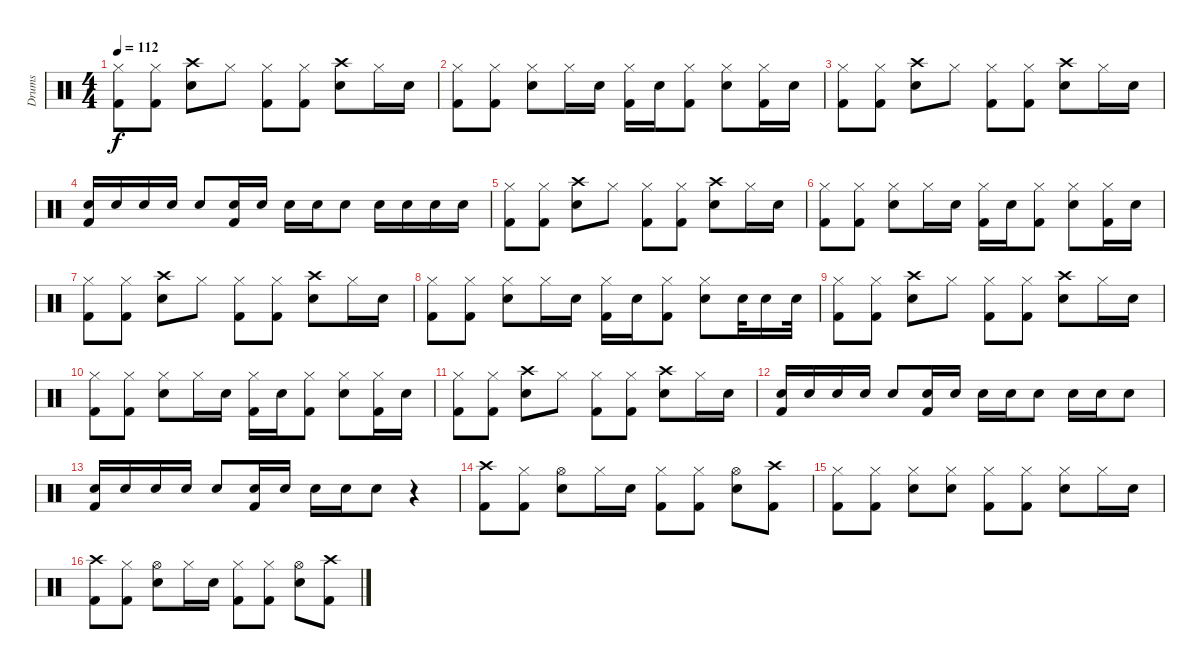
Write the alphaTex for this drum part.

\track ("Drums" "Drums") {instrument percussion}
\staff {score}
\articulation defaults
\ts (4 4)
\tempo 112
\clef neutral
\ks c
("Hi-Hat (closed)" "Kick (hit) 2").8{dy f} ("Hi-Hat (closed)" "Kick (hit) 2").8 ("Crash high (hit)" "Snare (hit) 2").8 "Hi-Hat (closed)".8 ("Hi-Hat (closed)" "Kick (hit) 2").8 ("Hi-Hat (closed)" "Kick (hit) 2").8 ("Crash high (hit)" "Snare (hit) 2").8 "Hi-Hat (closed)".16 "Snare (hit) 2".16 |
("Hi-Hat (closed)" "Kick (hit) 2").8 ("Hi-Hat (closed)" "Kick (hit) 2").8 ("Hi-Hat (closed)" "Snare (hit) 2").8 "Hi-Hat (closed)".16 "Snare (hit) 2".16 ("Hi-Hat (closed)" "Kick (hit) 2").16 "Snare (hit) 2".16 ("Hi-Hat (closed)" "Kick (hit) 2").8 ("Hi-Hat (closed)" "Snare (hit) 2").8 ("Hi-Hat (closed)" "Kick (hit) 2").16 "Snare (hit) 2".16 |
("Hi-Hat (closed)" "Kick (hit) 2").8 ("Hi-Hat (closed)" "Kick (hit) 2").8 ("Crash high (hit)" "Snare (hit) 2").8 "Hi-Hat (closed)".8 ("Hi-Hat (closed)" "Kick (hit) 2").8 ("Hi-Hat (closed)" "Kick (hit) 2").8 ("Crash high (hit)" "Snare (hit) 2").8 "Hi-Hat (closed)".16 "Snare (hit) 2".16 |
("Snare (hit) 2" "Kick (hit) 2").16 "Snare (hit) 2".16 "Snare (hit) 2".16 "Snare (hit) 2".16 "Snare (hit) 2".8 ("Snare (hit) 2" "Kick (hit) 2").16 "Snare (hit) 2".16 "Snare (hit) 2".16 "Snare (hit) 2".16 "Snare (hit) 2".8 "Snare (hit) 2".16 "Snare (hit) 2".16 "Snare (hit) 2".16 "Snare (hit) 2".16 |
("Hi-Hat (closed)" "Kick (hit) 2").8 ("Hi-Hat (closed)" "Kick (hit) 2").8 ("Crash high (hit)" "Snare (hit) 2").8 "Hi-Hat (closed)".8 ("Hi-Hat (closed)" "Kick (hit) 2").8 ("Hi-Hat (closed)" "Kick (hit) 2").8 ("Crash high (hit)" "Snare (hit) 2").8 "Hi-Hat (closed)".16 "Snare (hit) 2".16 |
("Hi-Hat (closed)" "Kick (hit) 2").8 ("Hi-Hat (closed)" "Kick (hit) 2").8 ("Hi-Hat (closed)" "Snare (hit) 2").8 "Hi-Hat (closed)".16 "Snare (hit) 2".16 ("Hi-Hat (closed)" "Kick (hit) 2").16 "Snare (hit) 2".16 ("Hi-Hat (closed)" "Kick (hit) 2").8 ("Hi-Hat (closed)" "Snare (hit) 2").8 ("Hi-Hat (closed)" "Kick (hit) 2").16 "Snare (hit) 2".16 |
("Hi-Hat (closed)" "Kick (hit) 2").8 ("Hi-Hat (closed)" "Kick (hit) 2").8 ("Crash high (hit)" "Snare (hit) 2").8 "Hi-Hat (closed)".8 ("Hi-Hat (closed)" "Kick (hit) 2").8 ("Hi-Hat (closed)" "Kick (hit) 2").8 ("Crash high (hit)" "Snare (hit) 2").8 "Hi-Hat (closed)".16 "Snare (hit) 2".16 |
("Hi-Hat (closed)" "Kick (hit) 2").8 ("Hi-Hat (closed)" "Kick (hit) 2").8 ("Hi-Hat (closed)" "Snare (hit) 2").8 "Hi-Hat (closed)".16 "Snare (hit) 2".16 ("Hi-Hat (closed)" "Kick (hit) 2").16 "Snare (hit) 2".16 ("Hi-Hat (closed)" "Kick (hit) 2").8 ("Hi-Hat (closed)" "Snare (hit) 2").8 "Snare (hit) 2".32 "Snare (hit) 2".16 "Snare (hit) 2".32 |
("Hi-Hat (closed)" "Kick (hit) 2").8 ("Hi-Hat (closed)" "Kick (hit) 2").8 ("Crash high (hit)" "Snare (hit) 2").8 "Hi-Hat (closed)".8 ("Hi-Hat (closed)" "Kick (hit) 2").8 ("Hi-Hat (closed)" "Kick (hit) 2").8 ("Crash high (hit)" "Snare (hit) 2").8 "Hi-Hat (closed)".16 "Snare (hit) 2".16 |
("Hi-Hat (closed)" "Kick (hit) 2").8 ("Hi-Hat (closed)" "Kick (hit) 2").8 ("Hi-Hat (closed)" "Snare (hit) 2").8 "Hi-Hat (closed)".16 "Snare (hit) 2".16 ("Hi-Hat (closed)" "Kick (hit) 2").16 "Snare (hit) 2".16 ("Hi-Hat (closed)" "Kick (hit) 2").8 ("Hi-Hat (closed)" "Snare (hit) 2").8 ("Hi-Hat (closed)" "Kick (hit) 2").16 "Snare (hit) 2".16 |
("Hi-Hat (closed)" "Kick (hit) 2").8 ("Hi-Hat (closed)" "Kick (hit) 2").8 ("Crash high (hit)" "Snare (hit) 2").8 "Hi-Hat (closed)".8 ("Hi-Hat (closed)" "Kick (hit) 2").8 ("Hi-Hat (closed)" "Kick (hit) 2").8 ("Crash high (hit)" "Snare (hit) 2").8 "Hi-Hat (closed)".16 "Snare (hit) 2".16 |
("Snare (hit) 2" "Kick (hit) 2").16 "Snare (hit) 2".16 "Snare (hit) 2".16 "Snare (hit) 2".16 "Snare (hit) 2".8 ("Snare (hit) 2" "Kick (hit) 2").16 "Snare (hit) 2".16 "Snare (hit) 2".16 "Snare (hit) 2".16 "Snare (hit) 2".8 "Snare (hit) 2".16 "Snare (hit) 2".16 "Snare (hit) 2".8 |
("Snare (hit) 2" "Kick (hit) 2").16 "Snare (hit) 2".16 "Snare (hit) 2".16 "Snare (hit) 2".16 "Snare (hit) 2".8 ("Snare (hit) 2" "Kick (hit) 2").16 "Snare (hit) 2".16 "Snare (hit) 2".16 "Snare (hit) 2".16 "Snare (hit) 2".8 r.4 |
("Crash high (hit)" "Kick (hit) 2").8 ("Hi-Hat (closed)" "Kick (hit) 2").8 ("Hi-Hat (open)" "Snare (hit) 2").8 "Hi-Hat (closed)".16 "Snare (hit) 2".16 ("Hi-Hat (closed)" "Kick (hit) 2").8 ("Hi-Hat (closed)" "Kick (hit) 2").8 ("Hi-Hat (open)" "Snare (hit) 2").8 ("Crash high (hit)" "Kick (hit) 2").8 |
("Hi-Hat (closed)" "Kick (hit) 2").8 ("Hi-Hat (closed)" "Kick (hit) 2").8 ("Hi-Hat (closed)" "Snare (hit) 2").8 ("Hi-Hat (closed)" "Snare (hit) 2").8 ("Hi-Hat (closed)" "Kick (hit) 2").8 ("Hi-Hat (closed)" "Kick (hit) 2").8 ("Hi-Hat (closed)" "Snare (hit) 2").8 "Hi-Hat (closed)".16 "Snare (hit) 2".16 |
("Crash high (hit)" "Kick (hit) 2").8 ("Hi-Hat (closed)" "Kick (hit) 2").8 ("Hi-Hat (open)" "Snare (hit) 2").8 "Hi-Hat (closed)".16 "Snare (hit) 2".16 ("Hi-Hat (closed)" "Kick (hit) 2").8 ("Hi-Hat (closed)" "Kick (hit) 2").8 ("Hi-Hat (open)" "Snare (hit) 2").8 ("Crash high (hit)" "Kick (hit) 2").8
